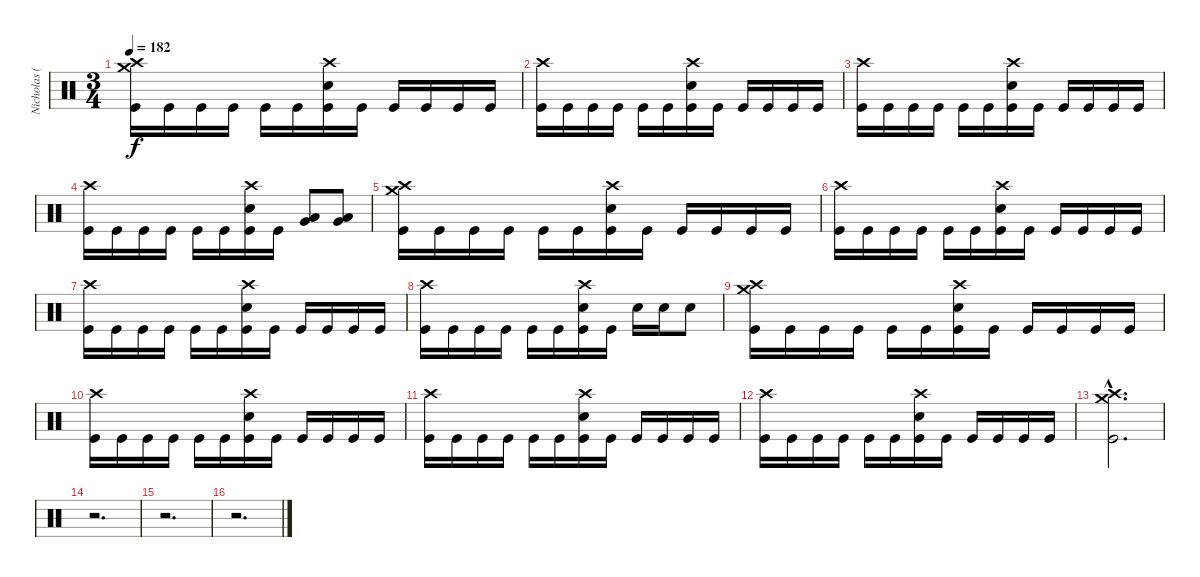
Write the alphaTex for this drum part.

\track ("Nicholas (Drums)" "Nicholas (") {instrument percussion}
\staff {score}
\articulation defaults
\ts (3 4)
\tempo 182
\clef neutral
\ks c
("Crash high (hit)" "Crash medium (hit)" "Kick (hit)").16{dy f} "Kick (hit)".16 "Kick (hit)".16 "Kick (hit)".16 "Kick (hit)".16 "Kick (hit)".16 ("Crash high (hit)" "Electric Snare (hit)" "Kick (hit)").16 "Kick (hit)".16 "Kick (hit)".16 "Kick (hit)".16 "Kick (hit)".16 "Kick (hit)".16 |
("Crash high (hit)" "Kick (hit)").16 "Kick (hit)".16 "Kick (hit)".16 "Kick (hit)".16 "Kick (hit)".16 "Kick (hit)".16 ("Crash high (hit)" "Electric Snare (hit)" "Kick (hit)").16 "Kick (hit)".16 "Kick (hit)".16 "Kick (hit)".16 "Kick (hit)".16 "Kick (hit)".16 |
("Crash high (hit)" "Kick (hit)").16 "Kick (hit)".16 "Kick (hit)".16 "Kick (hit)".16 "Kick (hit)".16 "Kick (hit)".16 ("Crash high (hit)" "Electric Snare (hit)" "Kick (hit)").16 "Kick (hit)".16 "Kick (hit)".16 "Kick (hit)".16 "Kick (hit)".16 "Kick (hit)".16 |
("Crash high (hit)" "Kick (hit)").16 "Kick (hit)".16 "Kick (hit)".16 "Kick (hit)".16 "Kick (hit)".16 "Kick (hit)".16 ("Crash high (hit)" "Electric Snare (hit)" "Kick (hit)").16 "Kick (hit)".16 ("Low Tom (hit)" "Very Low Tom (hit)").8{bu 120} ("Low Tom (hit)" "Very Low Tom (hit)").8{bu 120} |
("Crash high (hit)" "Crash medium (hit)" "Kick (hit)").16 "Kick (hit)".16 "Kick (hit)".16 "Kick (hit)".16 "Kick (hit)".16 "Kick (hit)".16 ("Crash high (hit)" "Electric Snare (hit)" "Kick (hit)").16 "Kick (hit)".16 "Kick (hit)".16 "Kick (hit)".16 "Kick (hit)".16 "Kick (hit)".16 |
("Crash high (hit)" "Kick (hit)").16 "Kick (hit)".16 "Kick (hit)".16 "Kick (hit)".16 "Kick (hit)".16 "Kick (hit)".16 ("Crash high (hit)" "Electric Snare (hit)" "Kick (hit)").16 "Kick (hit)".16 "Kick (hit)".16 "Kick (hit)".16 "Kick (hit)".16 "Kick (hit)".16 |
("Crash high (hit)" "Kick (hit)").16 "Kick (hit)".16 "Kick (hit)".16 "Kick (hit)".16 "Kick (hit)".16 "Kick (hit)".16 ("Crash high (hit)" "Electric Snare (hit)" "Kick (hit)").16 "Kick (hit)".16 "Kick (hit)".16 "Kick (hit)".16 "Kick (hit)".16 "Kick (hit)".16 |
("Crash high (hit)" "Kick (hit)").16 "Kick (hit)".16 "Kick (hit)".16 "Kick (hit)".16 "Kick (hit)".16 "Kick (hit)".16 ("Crash high (hit)" "Electric Snare (hit)" "Kick (hit)").16 "Kick (hit)".16 "Electric Snare (hit)".16 "Electric Snare (hit)".16 "Electric Snare (hit)".8 |
("Crash high (hit)" "Crash medium (hit)" "Kick (hit)").16 "Kick (hit)".16 "Kick (hit)".16 "Kick (hit)".16 "Kick (hit)".16 "Kick (hit)".16 ("Crash high (hit)" "Electric Snare (hit)" "Kick (hit)").16 "Kick (hit)".16 "Kick (hit)".16 "Kick (hit)".16 "Kick (hit)".16 "Kick (hit)".16 |
("Crash high (hit)" "Kick (hit)").16 "Kick (hit)".16 "Kick (hit)".16 "Kick (hit)".16 "Kick (hit)".16 "Kick (hit)".16 ("Crash high (hit)" "Electric Snare (hit)" "Kick (hit)").16 "Kick (hit)".16 "Kick (hit)".16 "Kick (hit)".16 "Kick (hit)".16 "Kick (hit)".16 |
("Crash high (hit)" "Kick (hit)").16 "Kick (hit)".16 "Kick (hit)".16 "Kick (hit)".16 "Kick (hit)".16 "Kick (hit)".16 ("Crash high (hit)" "Electric Snare (hit)" "Kick (hit)").16 "Kick (hit)".16 "Kick (hit)".16 "Kick (hit)".16 "Kick (hit)".16 "Kick (hit)".16 |
("Crash high (hit)" "Kick (hit)").16 "Kick (hit)".16 "Kick (hit)".16 "Kick (hit)".16 "Kick (hit)".16 "Kick (hit)".16 ("Crash high (hit)" "Electric Snare (hit)" "Kick (hit)").16 "Kick (hit)".16 "Kick (hit)".16 "Kick (hit)".16 "Kick (hit)".16 "Kick (hit)".16 |
("Crash high (hit)"{hac} "Crash medium (hit)"{hac} "Kick (hit)"{hac}).2{d} |
r.2{d} |
r.2{d} |
r.2{d}
